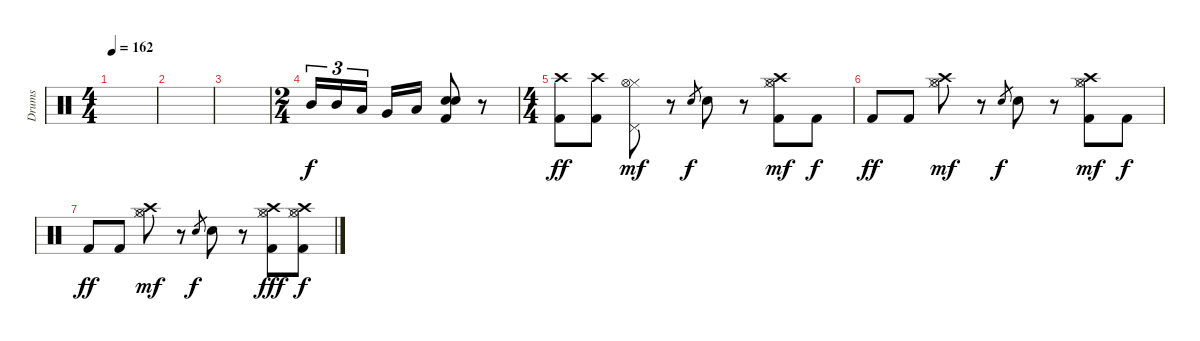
\track ("Drums" "Drums") {instrument percussion}
\staff {score}
\articulation defaults
\ts (4 4)
\tempo 162
\clef neutral
\ks c
|
|
|
\ts (2 4)
"Mid Tom (hit)".16{tu (3 2)} "Mid Tom (hit)".16{tu (3 2)} "Low Tom (hit)".16{tu (3 2)} "Very Low Tom (hit)".16 "Low Floor Tom (hit)".16 ("Electric Snare (hit)" "Snare (hit) 2" "Kick (hit) 2").8 r.8 |
\ts (4 4)
("Crash high (hit)" "Kick (hit) 2").8{dy ff} ("Crash high (hit)" "Kick (hit) 2").8 ("Pedal Hi-Hat (hit)" "Hi-Hat (closed)" "Hi-Hat (open)").8{dy mf} r.8 "Electric Snare (hit)".8{gr dy f} "Electric Snare (hit)".8 r.8 ("Crash high (hit)" "Hi-Hat (closed)" "Hi-Hat (open)" "Kick (hit) 2").8{dy mf} "Kick (hit) 2".8{dy f} |
"Kick (hit) 2".8{dy ff} "Kick (hit) 2".8 ("Crash high (hit)" "Hi-Hat (closed)" "Hi-Hat (open)").8{dy mf} r.8 "Electric Snare (hit)".8{gr dy f} "Electric Snare (hit)".8 r.8 ("Crash high (hit)" "Hi-Hat (closed)" "Hi-Hat (open)" "Kick (hit) 2").8{dy mf} "Kick (hit) 2".8{dy f} |
"Kick (hit) 2".8{dy ff} "Kick (hit) 2".8 ("Crash high (hit)" "Hi-Hat (closed)" "Hi-Hat (open)").8{dy mf} r.8 "Electric Snare (hit)".8{gr dy f} "Electric Snare (hit)".8 r.8 ("Crash high (hit)" "Hi-Hat (closed)" "Hi-Hat (open)" "Kick (hit) 2").8{dy fff} ("Crash high (hit)" "Hi-Hat (closed)" "Hi-Hat (open)" "Kick (hit) 2").8{dy f}
